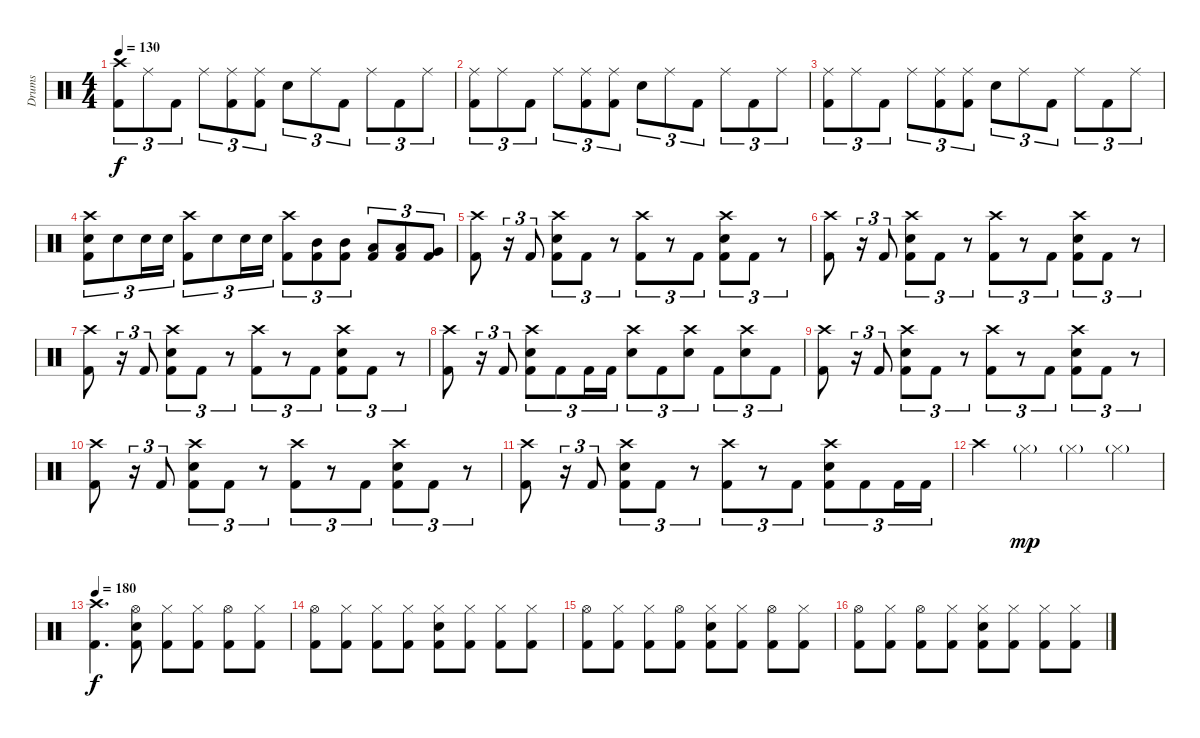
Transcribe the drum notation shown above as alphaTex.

\track ("Drums" "Drums") {instrument percussion}
\staff {score}
\articulation defaults
\ts (4 4)
\tempo 130
\clef neutral
\ks c
("Crash high (hit)" "Kick (hit) 2").8{tu (3 2) dy f} "Ride (middle)".8{tu (3 2)} "Kick (hit) 2".8{tu (3 2)} "Ride (middle)".8{tu (3 2)} ("Ride (middle)" "Kick (hit) 2").8{tu (3 2)} ("Ride (middle)" "Kick (hit) 2").8{tu (3 2)} "Electric Snare (hit)".8{tu (3 2)} "Ride (middle)".8{tu (3 2)} "Kick (hit) 2".8{tu (3 2)} "Ride (middle)".8{tu (3 2)} "Kick (hit) 2".8{tu (3 2)} "Ride (middle)".8{tu (3 2)} |
("Ride (middle)" "Kick (hit) 2").8{tu (3 2)} "Ride (middle)".8{tu (3 2)} "Kick (hit) 2".8{tu (3 2)} "Ride (middle)".8{tu (3 2)} ("Ride (middle)" "Kick (hit) 2").8{tu (3 2)} ("Ride (middle)" "Kick (hit) 2").8{tu (3 2)} "Electric Snare (hit)".8{tu (3 2)} "Ride (middle)".8{tu (3 2)} "Kick (hit) 2".8{tu (3 2)} "Ride (middle)".8{tu (3 2)} "Kick (hit) 2".8{tu (3 2)} "Ride (middle)".8{tu (3 2)} |
("Ride (middle)" "Kick (hit) 2").8{tu (3 2)} "Ride (middle)".8{tu (3 2)} "Kick (hit) 2".8{tu (3 2)} "Ride (middle)".8{tu (3 2)} ("Ride (middle)" "Kick (hit) 2").8{tu (3 2)} ("Ride (middle)" "Kick (hit) 2").8{tu (3 2)} "Electric Snare (hit)".8{tu (3 2)} "Ride (middle)".8{tu (3 2)} "Kick (hit) 2".8{tu (3 2)} "Ride (middle)".8{tu (3 2)} "Kick (hit) 2".8{tu (3 2)} "Ride (middle)".8{tu (3 2)} |
("Crash high (hit)" "Electric Snare (hit)" "Kick (hit) 2").8{tu (3 2)} "Electric Snare (hit)".8{tu (3 2)} "Electric Snare (hit)".16{tu (3 2)} "Electric Snare (hit)".16{tu (3 2)} ("Crash high (hit)" "Kick (hit) 2").8{tu (3 2)} "Electric Snare (hit)".8{tu (3 2)} "Electric Snare (hit)".16{tu (3 2)} "Electric Snare (hit)".16{tu (3 2)} ("Crash high (hit)" "Kick (hit) 2").8{tu (3 2)} ("Mid Tom (hit)" "Kick (hit) 2").8{tu (3 2)} ("Mid Tom (hit)" "Kick (hit) 2").8{tu (3 2)} ("Low Tom (hit)" "Kick (hit) 2").8{tu (3 2)} ("Low Tom (hit)" "Kick (hit) 2").8{tu (3 2)} ("Very Low Tom (hit)" "Kick (hit) 2").8{tu (3 2)} |
("Crash high (hit)" "Kick (hit) 2").8 r.16{tu (3 2)} "Kick (hit) 2".8{tu (3 2)} ("Crash high (hit)" "Electric Snare (hit)" "Kick (hit) 2").8{tu (3 2)} "Kick (hit) 2".8{tu (3 2)} r.8{tu (3 2)} ("Crash high (hit)" "Kick (hit) 2").8{tu (3 2)} r.8{tu (3 2)} "Kick (hit) 2".8{tu (3 2)} ("Crash high (hit)" "Electric Snare (hit)" "Kick (hit) 2").8{tu (3 2)} "Kick (hit) 2".8{tu (3 2)} r.8{tu (3 2)} |
("Crash high (hit)" "Kick (hit) 2").8 r.16{tu (3 2)} "Kick (hit) 2".8{tu (3 2)} ("Crash high (hit)" "Electric Snare (hit)" "Kick (hit) 2").8{tu (3 2)} "Kick (hit) 2".8{tu (3 2)} r.8{tu (3 2)} ("Crash high (hit)" "Kick (hit) 2").8{tu (3 2)} r.8{tu (3 2)} "Kick (hit) 2".8{tu (3 2)} ("Crash high (hit)" "Electric Snare (hit)" "Kick (hit) 2").8{tu (3 2)} "Kick (hit) 2".8{tu (3 2)} r.8{tu (3 2)} |
("Crash high (hit)" "Kick (hit) 2").8 r.16{tu (3 2)} "Kick (hit) 2".8{tu (3 2)} ("Crash high (hit)" "Electric Snare (hit)" "Kick (hit) 2").8{tu (3 2)} "Kick (hit) 2".8{tu (3 2)} r.8{tu (3 2)} ("Crash high (hit)" "Kick (hit) 2").8{tu (3 2)} r.8{tu (3 2)} "Kick (hit) 2".8{tu (3 2)} ("Crash high (hit)" "Electric Snare (hit)" "Kick (hit) 2").8{tu (3 2)} "Kick (hit) 2".8{tu (3 2)} r.8{tu (3 2)} |
("Crash high (hit)" "Kick (hit) 2").8 r.16{tu (3 2)} "Kick (hit) 2".8{tu (3 2)} ("Crash high (hit)" "Electric Snare (hit)" "Kick (hit) 2").8{tu (3 2)} "Kick (hit) 2".8{tu (3 2)} "Kick (hit) 2".16{tu (3 2)} "Kick (hit) 2".16{tu (3 2)} ("Crash high (hit)" "Electric Snare (hit)").8{tu (3 2)} "Kick (hit) 2".8{tu (3 2)} ("Crash high (hit)" "Electric Snare (hit)").8{tu (3 2)} "Kick (hit) 2".8{tu (3 2)} ("Crash high (hit)" "Electric Snare (hit)").8{tu (3 2)} "Kick (hit) 2".8{tu (3 2)} |
("Crash high (hit)" "Kick (hit) 2").8 r.16{tu (3 2)} "Kick (hit) 2".8{tu (3 2)} ("Crash high (hit)" "Electric Snare (hit)" "Kick (hit) 2").8{tu (3 2)} "Kick (hit) 2".8{tu (3 2)} r.8{tu (3 2)} ("Crash high (hit)" "Kick (hit) 2").8{tu (3 2)} r.8{tu (3 2)} "Kick (hit) 2".8{tu (3 2)} ("Crash high (hit)" "Electric Snare (hit)" "Kick (hit) 2").8{tu (3 2)} "Kick (hit) 2".8{tu (3 2)} r.8{tu (3 2)} |
("Crash high (hit)" "Kick (hit) 2").8 r.16{tu (3 2)} "Kick (hit) 2".8{tu (3 2)} ("Crash high (hit)" "Electric Snare (hit)" "Kick (hit) 2").8{tu (3 2)} "Kick (hit) 2".8{tu (3 2)} r.8{tu (3 2)} ("Crash high (hit)" "Kick (hit) 2").8{tu (3 2)} r.8{tu (3 2)} "Kick (hit) 2".8{tu (3 2)} ("Crash high (hit)" "Electric Snare (hit)" "Kick (hit) 2").8{tu (3 2)} "Kick (hit) 2".8{tu (3 2)} r.8{tu (3 2)} |
("Crash high (hit)" "Kick (hit) 2").8 r.16{tu (3 2)} "Kick (hit) 2".8{tu (3 2)} ("Crash high (hit)" "Electric Snare (hit)" "Kick (hit) 2").8{tu (3 2)} "Kick (hit) 2".8{tu (3 2)} r.8{tu (3 2)} ("Crash high (hit)" "Kick (hit) 2").8{tu (3 2)} r.8{tu (3 2)} "Kick (hit) 2".8{tu (3 2)} ("Crash high (hit)" "Electric Snare (hit)" "Kick (hit) 2").8{tu (3 2)} "Kick (hit) 2".8{tu (3 2)} "Kick (hit) 2".16{tu (3 2)} "Kick (hit) 2".16{tu (3 2)} |
"Crash high (hit)".4 "Hi-Hat (closed)"{g}.4{dy mp} "Hi-Hat (closed)"{g}.4 "Hi-Hat (closed)"{g}.4 |
\tempo 180
("Crash high (hit)" "Kick (hit) 2").4{d dy f} ("Hi-Hat (open)" "Electric Snare (hit)" "Kick (hit) 2").8 ("Hi-Hat (closed)" "Kick (hit) 2").8 ("Hi-Hat (closed)" "Kick (hit) 2").8 ("Hi-Hat (open)" "Kick (hit) 2").8 ("Hi-Hat (closed)" "Kick (hit) 2").8 |
("Hi-Hat (open)" "Kick (hit) 2").8 ("Hi-Hat (closed)" "Kick (hit) 2").8 ("Hi-Hat (closed)" "Kick (hit) 2").8 ("Hi-Hat (closed)" "Kick (hit) 2").8 ("Hi-Hat (closed)" "Electric Snare (hit)" "Kick (hit) 2").8 ("Hi-Hat (closed)" "Kick (hit) 2").8 ("Hi-Hat (closed)" "Kick (hit) 2").8 ("Hi-Hat (closed)" "Kick (hit) 2").8 |
("Hi-Hat (open)" "Kick (hit) 2").8 ("Hi-Hat (closed)" "Kick (hit) 2").8 ("Hi-Hat (closed)" "Kick (hit) 2").8 ("Hi-Hat (open)" "Kick (hit) 2").8 ("Hi-Hat (closed)" "Electric Snare (hit)" "Kick (hit) 2").8 ("Hi-Hat (closed)" "Kick (hit) 2").8 ("Hi-Hat (open)" "Kick (hit) 2").8 ("Hi-Hat (closed)" "Kick (hit) 2").8 |
("Hi-Hat (open)" "Kick (hit) 2").8 ("Hi-Hat (closed)" "Kick (hit) 2").8 ("Hi-Hat (open)" "Kick (hit) 2").8 ("Hi-Hat (closed)" "Kick (hit) 2").8 ("Hi-Hat (closed)" "Electric Snare (hit)" "Kick (hit) 2").8 ("Hi-Hat (closed)" "Kick (hit) 2").8 ("Hi-Hat (closed)" "Kick (hit) 2").8 ("Hi-Hat (closed)" "Kick (hit) 2").8
